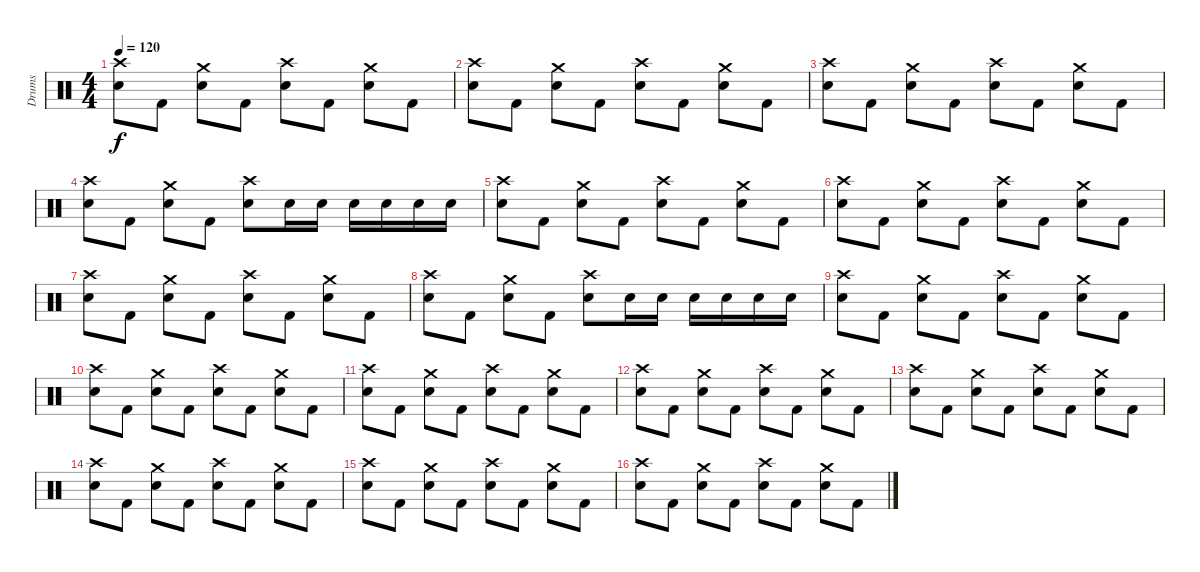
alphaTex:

\track ("Drums" "Drums") {instrument percussion}
\staff {score}
\articulation defaults
\ts (4 4)
\tempo 120
\clef neutral
\ks c
("Crash high (hit)" "Electric Snare (hit)").8{dy f} "Kick (hit) 2".8 ("Crash medium (hit)" "Electric Snare (hit)").8 "Kick (hit) 2".8 ("Crash high (hit)" "Electric Snare (hit)").8 "Kick (hit) 2".8 ("Crash medium (hit)" "Electric Snare (hit)").8 "Kick (hit) 2".8 |
("Crash high (hit)" "Electric Snare (hit)").8 "Kick (hit) 2".8 ("Crash medium (hit)" "Electric Snare (hit)").8 "Kick (hit) 2".8 ("Crash high (hit)" "Electric Snare (hit)").8 "Kick (hit) 2".8 ("Crash medium (hit)" "Electric Snare (hit)").8 "Kick (hit) 2".8 |
("Crash high (hit)" "Electric Snare (hit)").8 "Kick (hit) 2".8 ("Crash medium (hit)" "Electric Snare (hit)").8 "Kick (hit) 2".8 ("Crash high (hit)" "Electric Snare (hit)").8 "Kick (hit) 2".8 ("Crash medium (hit)" "Electric Snare (hit)").8 "Kick (hit) 2".8 |
("Crash high (hit)" "Electric Snare (hit)").8 "Kick (hit) 2".8 ("Crash medium (hit)" "Electric Snare (hit)").8 "Kick (hit) 2".8 ("Crash high (hit)" "Electric Snare (hit)").8 "Electric Snare (hit)".16 "Electric Snare (hit)".16 "Electric Snare (hit)".16 "Electric Snare (hit)".16 "Electric Snare (hit)".16 "Electric Snare (hit)".16 |
("Crash high (hit)" "Electric Snare (hit)").8 "Kick (hit) 2".8 ("Crash medium (hit)" "Electric Snare (hit)").8 "Kick (hit) 2".8 ("Crash high (hit)" "Electric Snare (hit)").8 "Kick (hit) 2".8 ("Crash medium (hit)" "Electric Snare (hit)").8 "Kick (hit) 2".8 |
("Crash high (hit)" "Electric Snare (hit)").8 "Kick (hit) 2".8 ("Crash medium (hit)" "Electric Snare (hit)").8 "Kick (hit) 2".8 ("Crash high (hit)" "Electric Snare (hit)").8 "Kick (hit) 2".8 ("Crash medium (hit)" "Electric Snare (hit)").8 "Kick (hit) 2".8 |
("Crash high (hit)" "Electric Snare (hit)").8 "Kick (hit) 2".8 ("Crash medium (hit)" "Electric Snare (hit)").8 "Kick (hit) 2".8 ("Crash high (hit)" "Electric Snare (hit)").8 "Kick (hit) 2".8 ("Crash medium (hit)" "Electric Snare (hit)").8 "Kick (hit) 2".8 |
("Crash high (hit)" "Electric Snare (hit)").8 "Kick (hit) 2".8 ("Crash medium (hit)" "Electric Snare (hit)").8 "Kick (hit) 2".8 ("Crash high (hit)" "Electric Snare (hit)").8 "Electric Snare (hit)".16 "Electric Snare (hit)".16 "Electric Snare (hit)".16 "Electric Snare (hit)".16 "Electric Snare (hit)".16 "Electric Snare (hit)".16 |
("Crash high (hit)" "Electric Snare (hit)").8 "Kick (hit) 2".8 ("Crash medium (hit)" "Electric Snare (hit)").8 "Kick (hit) 2".8 ("Crash high (hit)" "Electric Snare (hit)").8 "Kick (hit) 2".8 ("Crash medium (hit)" "Electric Snare (hit)").8 "Kick (hit) 2".8 |
("Crash high (hit)" "Electric Snare (hit)").8 "Kick (hit) 2".8 ("Crash medium (hit)" "Electric Snare (hit)").8 "Kick (hit) 2".8 ("Crash high (hit)" "Electric Snare (hit)").8 "Kick (hit) 2".8 ("Crash medium (hit)" "Electric Snare (hit)").8 "Kick (hit) 2".8 |
("Crash high (hit)" "Electric Snare (hit)").8 "Kick (hit) 2".8 ("Crash medium (hit)" "Electric Snare (hit)").8 "Kick (hit) 2".8 ("Crash high (hit)" "Electric Snare (hit)").8 "Kick (hit) 2".8 ("Crash medium (hit)" "Electric Snare (hit)").8 "Kick (hit) 2".8 |
("Crash high (hit)" "Electric Snare (hit)").8 "Kick (hit) 2".8 ("Crash medium (hit)" "Electric Snare (hit)").8 "Kick (hit) 2".8 ("Crash high (hit)" "Electric Snare (hit)").8 "Kick (hit) 2".8 ("Crash medium (hit)" "Electric Snare (hit)").8 "Kick (hit) 2".8 |
("Crash high (hit)" "Electric Snare (hit)").8 "Kick (hit) 2".8 ("Crash medium (hit)" "Electric Snare (hit)").8 "Kick (hit) 2".8 ("Crash high (hit)" "Electric Snare (hit)").8 "Kick (hit) 2".8 ("Crash medium (hit)" "Electric Snare (hit)").8 "Kick (hit) 2".8 |
("Crash high (hit)" "Electric Snare (hit)").8 "Kick (hit) 2".8 ("Crash medium (hit)" "Electric Snare (hit)").8 "Kick (hit) 2".8 ("Crash high (hit)" "Electric Snare (hit)").8 "Kick (hit) 2".8 ("Crash medium (hit)" "Electric Snare (hit)").8 "Kick (hit) 2".8 |
("Crash high (hit)" "Electric Snare (hit)").8 "Kick (hit) 2".8 ("Crash medium (hit)" "Electric Snare (hit)").8 "Kick (hit) 2".8 ("Crash high (hit)" "Electric Snare (hit)").8 "Kick (hit) 2".8 ("Crash medium (hit)" "Electric Snare (hit)").8 "Kick (hit) 2".8 |
("Crash high (hit)" "Electric Snare (hit)").8 "Kick (hit) 2".8 ("Crash medium (hit)" "Electric Snare (hit)").8 "Kick (hit) 2".8 ("Crash high (hit)" "Electric Snare (hit)").8 "Kick (hit) 2".8 ("Crash medium (hit)" "Electric Snare (hit)").8 "Kick (hit) 2".8
